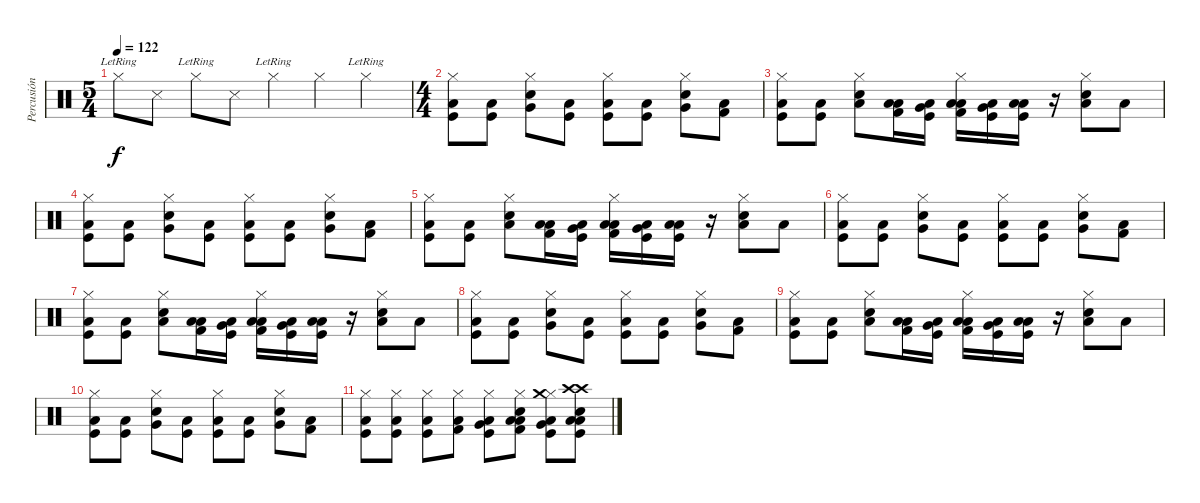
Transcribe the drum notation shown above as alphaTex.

\track ("Percusión" "Percusión") {instrument percussion}
\staff {score}
\articulation defaults
\ts (5 4)
\tempo 122
\clef neutral
\ks c "Hi-Hat (closed)"{lr}.8{dy f volume 8} "Metronome (hit)".8 "Hi-Hat (closed)"{lr}.8 "Snare (side stick) 3".8 "Hi-Hat (closed)"{lr}.4 "Hi-Hat (closed)".4 "Hi-Hat (closed)"{lr}.4
|
\ts (4 4)
("Hi-Hat (closed)" "Low Floor Tom (hit)" "Kick (hit)").8{volume 13} ("Low Floor Tom (hit)" "Kick (hit)").8 ("Hi-Hat (closed)" "Very Low Tom (hit)" "Snare (hit) 2").8 ("Low Floor Tom (hit)" "Kick (hit)").8 ("Hi-Hat (closed)" "Low Floor Tom (hit)" "Kick (hit)").8 ("Low Floor Tom (hit)" "Kick (hit)").8 ("Hi-Hat (closed)" "Very Low Tom (hit)" "Snare (hit) 2").8 ("Low Tom (hit)" "Kick (hit) 2").8 |
("Hi-Hat (closed)" "Low Floor Tom (hit)" "Kick (hit)").8 ("Low Floor Tom (hit)" "Kick (hit)").8 ("Hi-Hat (closed)" "Low Tom (hit)" "Snare (hit) 2").8 ("Low Tom (hit)" "Low Floor Tom (hit)" "Kick (hit) 2").16 ("Very Low Tom (hit)" "Low Floor Tom (hit)" "Kick (hit)").16 ("Hi-Hat (closed)" "Low Tom (hit)" "Low Floor Tom (hit)" "Kick (hit) 2").16 ("Very Low Tom (hit)" "Low Floor Tom (hit)" "Kick (hit)").16 ("Low Tom (hit)" "Low Floor Tom (hit)" "Kick (hit)").16 r.16 ("Hi-Hat (closed)" "Low Tom (hit)" "Snare (hit) 2").8 "Low Floor Tom (hit)".8 |
("Hi-Hat (closed)" "Low Floor Tom (hit)" "Kick (hit)").8 ("Low Floor Tom (hit)" "Kick (hit)").8 ("Hi-Hat (closed)" "Very Low Tom (hit)" "Snare (hit) 2").8 ("Low Floor Tom (hit)" "Kick (hit)").8 ("Hi-Hat (closed)" "Low Floor Tom (hit)" "Kick (hit)").8 ("Low Floor Tom (hit)" "Kick (hit)").8 ("Hi-Hat (closed)" "Very Low Tom (hit)" "Snare (hit) 2").8 ("Low Tom (hit)" "Kick (hit) 2").8 |
("Hi-Hat (closed)" "Low Floor Tom (hit)" "Kick (hit)").8 ("Low Floor Tom (hit)" "Kick (hit)").8 ("Hi-Hat (closed)" "Low Tom (hit)" "Snare (hit) 2").8 ("Low Tom (hit)" "Low Floor Tom (hit)" "Kick (hit) 2").16 ("Very Low Tom (hit)" "Low Floor Tom (hit)" "Kick (hit)").16 ("Hi-Hat (closed)" "Low Tom (hit)" "Low Floor Tom (hit)" "Kick (hit) 2").16 ("Very Low Tom (hit)" "Low Floor Tom (hit)" "Kick (hit)").16 ("Low Tom (hit)" "Low Floor Tom (hit)" "Kick (hit)").16 r.16 ("Hi-Hat (closed)" "Low Tom (hit)" "Snare (hit) 2").8 "Low Floor Tom (hit)".8 |
("Hi-Hat (closed)" "Low Floor Tom (hit)" "Kick (hit)").8 ("Low Floor Tom (hit)" "Kick (hit)").8 ("Hi-Hat (closed)" "Very Low Tom (hit)" "Snare (hit) 2").8 ("Low Floor Tom (hit)" "Kick (hit)").8 ("Hi-Hat (closed)" "Low Floor Tom (hit)" "Kick (hit)").8 ("Low Floor Tom (hit)" "Kick (hit)").8 ("Hi-Hat (closed)" "Very Low Tom (hit)" "Snare (hit) 2").8 ("Low Tom (hit)" "Kick (hit) 2").8 |
("Hi-Hat (closed)" "Low Floor Tom (hit)" "Kick (hit)").8 ("Low Floor Tom (hit)" "Kick (hit)").8 ("Hi-Hat (closed)" "Low Tom (hit)" "Snare (hit) 2").8 ("Low Tom (hit)" "Low Floor Tom (hit)" "Kick (hit) 2").16 ("Very Low Tom (hit)" "Low Floor Tom (hit)" "Kick (hit)").16 ("Hi-Hat (closed)" "Low Tom (hit)" "Low Floor Tom (hit)" "Kick (hit) 2").16 ("Very Low Tom (hit)" "Low Floor Tom (hit)" "Kick (hit)").16 ("Low Tom (hit)" "Low Floor Tom (hit)" "Kick (hit)").16 r.16 ("Hi-Hat (closed)" "Low Tom (hit)" "Snare (hit) 2").8 "Low Floor Tom (hit)".8 |
("Hi-Hat (closed)" "Low Floor Tom (hit)" "Kick (hit)").8 ("Low Floor Tom (hit)" "Kick (hit)").8 ("Hi-Hat (closed)" "Very Low Tom (hit)" "Snare (hit) 2").8 ("Low Floor Tom (hit)" "Kick (hit)").8 ("Hi-Hat (closed)" "Low Floor Tom (hit)" "Kick (hit)").8 ("Low Floor Tom (hit)" "Kick (hit)").8 ("Hi-Hat (closed)" "Very Low Tom (hit)" "Snare (hit) 2").8 ("Low Tom (hit)" "Kick (hit) 2").8 |
("Hi-Hat (closed)" "Low Floor Tom (hit)" "Kick (hit)").8 ("Low Floor Tom (hit)" "Kick (hit)").8 ("Hi-Hat (closed)" "Low Tom (hit)" "Snare (hit) 2").8 ("Low Tom (hit)" "Low Floor Tom (hit)" "Kick (hit) 2").16 ("Very Low Tom (hit)" "Low Floor Tom (hit)" "Kick (hit)").16 ("Hi-Hat (closed)" "Low Tom (hit)" "Low Floor Tom (hit)" "Kick (hit) 2").16 ("Very Low Tom (hit)" "Low Floor Tom (hit)" "Kick (hit)").16 ("Low Tom (hit)" "Low Floor Tom (hit)" "Kick (hit)").16 r.16 ("Hi-Hat (closed)" "Low Tom (hit)" "Snare (hit) 2").8 "Low Floor Tom (hit)".8 |
("Hi-Hat (closed)" "Low Floor Tom (hit)" "Kick (hit)").8 ("Low Floor Tom (hit)" "Kick (hit)").8 ("Hi-Hat (closed)" "Very Low Tom (hit)" "Snare (hit) 2").8 ("Low Floor Tom (hit)" "Kick (hit)").8 ("Hi-Hat (closed)" "Low Floor Tom (hit)" "Kick (hit)").8 ("Low Floor Tom (hit)" "Kick (hit)").8 ("Hi-Hat (closed)" "Very Low Tom (hit)" "Snare (hit) 2").8 ("Low Tom (hit)" "Kick (hit) 2").8 |
("Hi-Hat (closed)" "Low Floor Tom (hit)" "Kick (hit)").8 ("Hi-Hat (closed)" "Low Floor Tom (hit)" "Kick (hit)").8 ("Hi-Hat (closed)" "Low Floor Tom (hit)" "Kick (hit)").8 ("Hi-Hat (closed)" "Low Floor Tom (hit)" "Kick (hit) 2").8 ("Hi-Hat (closed)" "Very Low Tom (hit)" "Low Floor Tom (hit)" "Kick (hit)").8 ("Hi-Hat (closed)" "Electric Snare (hit)" "Low Tom (hit)" "Low Floor Tom (hit)" "Kick (hit) 2").8 ("Hi-Hat (closed)" "Crash medium (hit)" "Very Low Tom (hit)" "Low Floor Tom (hit)" "Kick (hit)").8 ("Crash high (hit)" "Electric Snare (hit)" "Crash high (hit)" "Low Tom (hit)" "Low Floor Tom (hit)" "Kick (hit)").8
